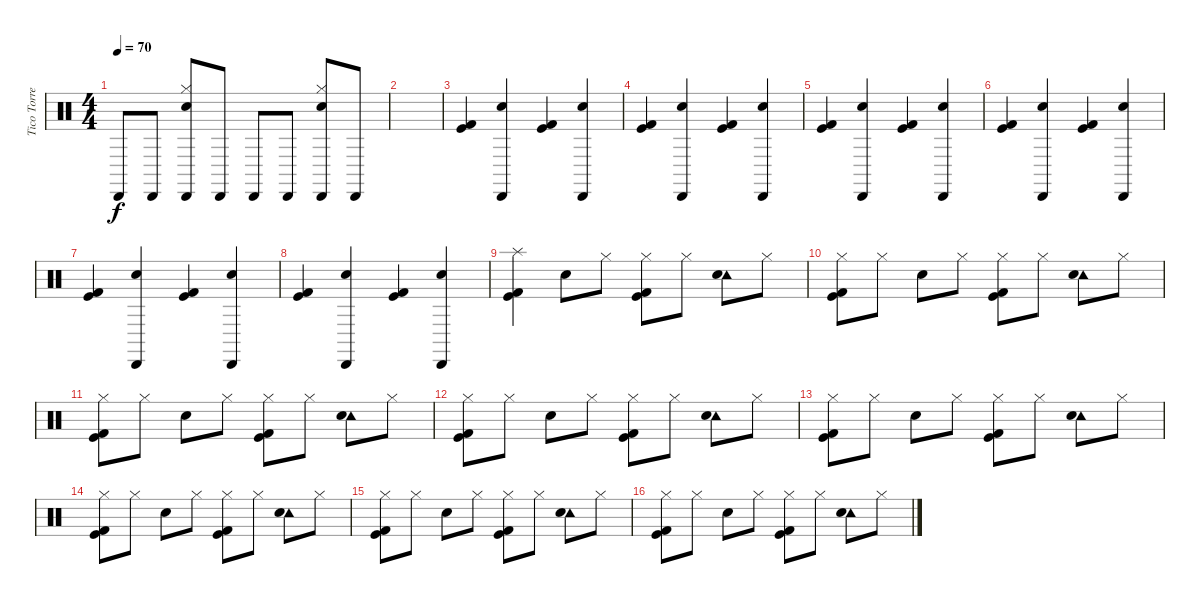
\track ("Tico Torres" "Tico Torre") {instrument percussion}
\staff {score}
\articulation defaults
\ts (4 4)
\tempo 70
\clef neutral
\ks c "Cabasa (hit)".8{dy f} "Cabasa (hit)".8
("Hi-Hat (closed)" "Snare (hit)" "Cabasa (hit)").8 "Cabasa (hit)".8 "Cabasa (hit)".8 "Cabasa (hit)".8 ("Hi-Hat (closed)" "Snare (hit)" "Cabasa (hit)").8 "Cabasa (hit)".8 |
|
("Kick (hit) 2" "Kick (hit)").4 ("Cabasa (hit)" "Snare (hit)").4 ("Kick (hit) 2" "Kick (hit)").4 ("Cabasa (hit)" "Snare (hit)").4 |
("Kick (hit) 2" "Kick (hit)").4 ("Cabasa (hit)" "Snare (hit)").4 ("Kick (hit) 2" "Kick (hit)").4 ("Cabasa (hit)" "Snare (hit)").4 |
("Kick (hit) 2" "Kick (hit)").4 ("Cabasa (hit)" "Snare (hit)").4 ("Kick (hit) 2" "Kick (hit)").4 ("Cabasa (hit)" "Snare (hit)").4 |
("Kick (hit) 2" "Kick (hit)").4 ("Cabasa (hit)" "Snare (hit)").4 ("Kick (hit) 2" "Kick (hit)").4 ("Cabasa (hit)" "Snare (hit)").4 |
("Kick (hit) 2" "Kick (hit)").4 ("Cabasa (hit)" "Snare (hit)").4 ("Kick (hit) 2" "Kick (hit)").4 ("Cabasa (hit)" "Snare (hit)").4 |
("Kick (hit) 2" "Kick (hit)").4 ("Cabasa (hit)" "Snare (hit)").4 ("Kick (hit) 2" "Kick (hit)").4 ("Cabasa (hit)" "Snare (hit)").4 |
("Splash (hit)" "Kick (hit) 2" "Kick (hit)").4 "Snare (hit) 2".8 "Hi-Hat (closed)".8 ("Hi-Hat (closed)" "Kick (hit) 2" "Kick (hit)").8 "Hi-Hat (closed)".8 ("Tambourine (hit)" "Snare (hit) 2").8 "Hi-Hat (closed)".8 |
("Hi-Hat (closed)" "Kick (hit) 2" "Kick (hit)").8 "Hi-Hat (closed)".8 "Snare (hit) 2".8 "Hi-Hat (closed)".8 ("Hi-Hat (closed)" "Kick (hit) 2" "Kick (hit)").8 "Hi-Hat (closed)".8 ("Tambourine (hit)" "Snare (hit) 2").8 "Hi-Hat (closed)".8 |
("Hi-Hat (closed)" "Kick (hit) 2" "Kick (hit)").8 "Hi-Hat (closed)".8 "Snare (hit) 2".8 "Hi-Hat (closed)".8 ("Hi-Hat (closed)" "Kick (hit) 2" "Kick (hit)").8 "Hi-Hat (closed)".8 ("Tambourine (hit)" "Snare (hit) 2").8 "Hi-Hat (closed)".8 |
("Hi-Hat (closed)" "Kick (hit) 2" "Kick (hit)").8 "Hi-Hat (closed)".8 "Snare (hit) 2".8 "Hi-Hat (closed)".8 ("Hi-Hat (closed)" "Kick (hit) 2" "Kick (hit)").8 "Hi-Hat (closed)".8 ("Tambourine (hit)" "Snare (hit) 2").8 "Hi-Hat (closed)".8 |
("Hi-Hat (closed)" "Kick (hit) 2" "Kick (hit)").8 "Hi-Hat (closed)".8 "Snare (hit) 2".8 "Hi-Hat (closed)".8 ("Hi-Hat (closed)" "Kick (hit) 2" "Kick (hit)").8 "Hi-Hat (closed)".8 ("Tambourine (hit)" "Snare (hit) 2").8 "Hi-Hat (closed)".8 |
("Hi-Hat (closed)" "Kick (hit) 2" "Kick (hit)").8 "Hi-Hat (closed)".8 "Snare (hit) 2".8 "Hi-Hat (closed)".8 ("Hi-Hat (closed)" "Kick (hit) 2" "Kick (hit)").8 "Hi-Hat (closed)".8 ("Tambourine (hit)" "Snare (hit) 2").8 "Hi-Hat (closed)".8 |
("Hi-Hat (closed)" "Kick (hit) 2" "Kick (hit)").8 "Hi-Hat (closed)".8 "Snare (hit) 2".8 "Hi-Hat (closed)".8 ("Hi-Hat (closed)" "Kick (hit) 2" "Kick (hit)").8 "Hi-Hat (closed)".8 ("Tambourine (hit)" "Snare (hit) 2").8 "Hi-Hat (closed)".8 |
("Hi-Hat (closed)" "Kick (hit) 2" "Kick (hit)").8 "Hi-Hat (closed)".8 "Snare (hit) 2".8 "Hi-Hat (closed)".8 ("Hi-Hat (closed)" "Kick (hit) 2" "Kick (hit)").8 "Hi-Hat (closed)".8 ("Tambourine (hit)" "Snare (hit) 2").8 "Hi-Hat (closed)".8
